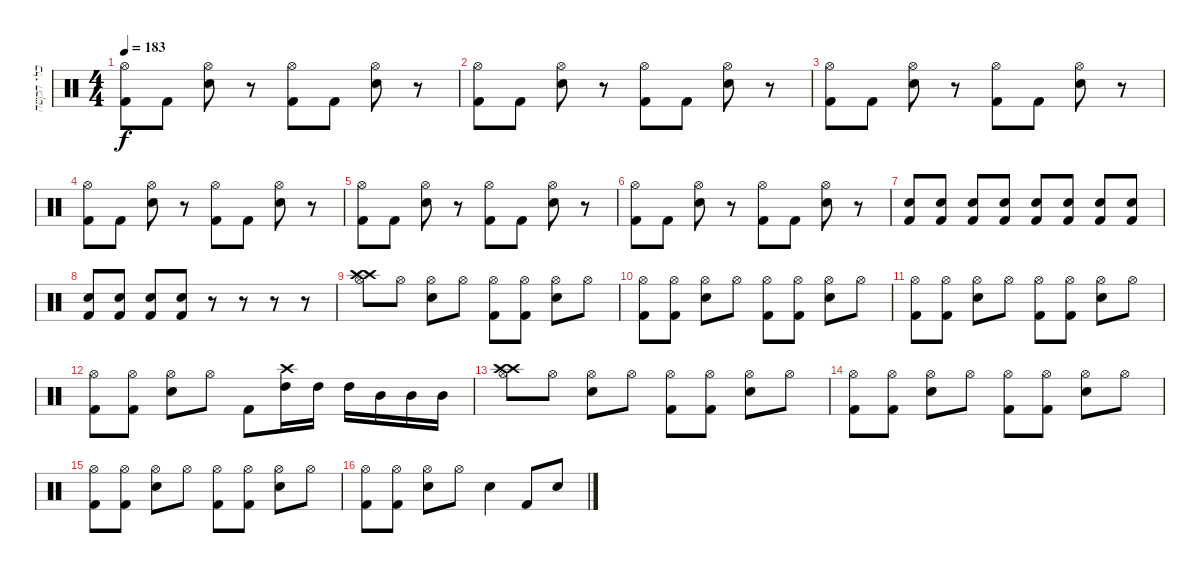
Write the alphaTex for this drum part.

\track ("כלי הקשה" "כלי הקשה") {instrument percussion}
\staff {score}
\articulation defaults
\ts (4 4)
\tempo 183
\clef neutral
\ks c
("Hi-Hat (open)" "Kick (hit) 2").8{dy f} "Kick (hit) 2".8 ("Hi-Hat (open)" "Snare (hit) 2").8 r.8 ("Hi-Hat (open)" "Kick (hit) 2").8 "Kick (hit) 2".8 ("Hi-Hat (open)" "Snare (hit) 2").8 r.8 |
("Hi-Hat (open)" "Kick (hit) 2").8 "Kick (hit) 2".8 ("Hi-Hat (open)" "Snare (hit) 2").8 r.8 ("Hi-Hat (open)" "Kick (hit) 2").8 "Kick (hit) 2".8 ("Hi-Hat (open)" "Snare (hit) 2").8 r.8 |
("Hi-Hat (open)" "Kick (hit) 2").8 "Kick (hit) 2".8 ("Hi-Hat (open)" "Snare (hit) 2").8 r.8 ("Hi-Hat (open)" "Kick (hit) 2").8 "Kick (hit) 2".8 ("Hi-Hat (open)" "Snare (hit) 2").8 r.8 |
("Hi-Hat (open)" "Kick (hit) 2").8 "Kick (hit) 2".8 ("Hi-Hat (open)" "Snare (hit) 2").8 r.8 ("Hi-Hat (open)" "Kick (hit) 2").8 "Kick (hit) 2".8 ("Hi-Hat (open)" "Snare (hit) 2").8 r.8 |
("Hi-Hat (open)" "Kick (hit) 2").8 "Kick (hit) 2".8 ("Hi-Hat (open)" "Snare (hit) 2").8 r.8 ("Hi-Hat (open)" "Kick (hit) 2").8 "Kick (hit) 2".8 ("Hi-Hat (open)" "Snare (hit) 2").8 r.8 |
("Hi-Hat (open)" "Kick (hit) 2").8 "Kick (hit) 2".8 ("Hi-Hat (open)" "Snare (hit) 2").8 r.8 ("Hi-Hat (open)" "Kick (hit) 2").8 "Kick (hit) 2".8 ("Hi-Hat (open)" "Snare (hit) 2").8 r.8 |
("Snare (hit) 2" "Kick (hit) 2").8 ("Snare (hit) 2" "Kick (hit) 2").8 ("Snare (hit) 2" "Kick (hit) 2").8 ("Snare (hit) 2" "Kick (hit) 2").8 ("Snare (hit) 2" "Kick (hit) 2").8 ("Snare (hit) 2" "Kick (hit) 2").8 ("Snare (hit) 2" "Kick (hit) 2").8 ("Snare (hit) 2" "Kick (hit) 2").8 |
("Snare (hit) 2" "Kick (hit) 2").8 ("Snare (hit) 2" "Kick (hit) 2").8 ("Snare (hit) 2" "Kick (hit) 2").8 ("Snare (hit) 2" "Kick (hit) 2").8 r.8 r.8 r.8 r.8 |
("Crash high (hit)" "Crash high (hit)" "Hi-Hat (open)").8 "Hi-Hat (open)".8 ("Hi-Hat (open)" "Snare (hit) 2").8 "Hi-Hat (open)".8 ("Hi-Hat (open)" "Kick (hit) 2").8 ("Hi-Hat (open)" "Kick (hit) 2").8 ("Hi-Hat (open)" "Snare (hit) 2").8 "Hi-Hat (open)".8 |
("Hi-Hat (open)" "Kick (hit) 2").8 ("Hi-Hat (open)" "Kick (hit) 2").8 ("Hi-Hat (open)" "Snare (hit) 2").8 "Hi-Hat (open)".8 ("Hi-Hat (open)" "Kick (hit) 2").8 ("Hi-Hat (open)" "Kick (hit) 2").8 ("Hi-Hat (open)" "Snare (hit) 2").8 "Hi-Hat (open)".8 |
("Hi-Hat (open)" "Kick (hit) 2").8 ("Hi-Hat (open)" "Kick (hit) 2").8 ("Hi-Hat (open)" "Snare (hit) 2").8 "Hi-Hat (open)".8 ("Hi-Hat (open)" "Kick (hit) 2").8 ("Hi-Hat (open)" "Kick (hit) 2").8 ("Hi-Hat (open)" "Snare (hit) 2").8 "Hi-Hat (open)".8 |
("Hi-Hat (open)" "Kick (hit) 2").8 ("Hi-Hat (open)" "Kick (hit) 2").8 ("Hi-Hat (open)" "Snare (hit) 2").8 "Hi-Hat (open)".8 "Kick (hit) 2".8 ("Crash high (hit)" "High Tom (hit)").16 "High Tom (hit)".16 "High Tom (hit)".16 "Mid Tom (hit)".16 "Mid Tom (hit)".16 "Mid Tom (hit)".16 |
("Crash high (hit)" "Crash high (hit)" "Hi-Hat (open)").8 "Hi-Hat (open)".8 ("Hi-Hat (open)" "Snare (hit) 2").8 "Hi-Hat (open)".8 ("Hi-Hat (open)" "Kick (hit) 2").8 ("Hi-Hat (open)" "Kick (hit) 2").8 ("Hi-Hat (open)" "Snare (hit) 2").8 "Hi-Hat (open)".8 |
("Hi-Hat (open)" "Kick (hit) 2").8 ("Hi-Hat (open)" "Kick (hit) 2").8 ("Hi-Hat (open)" "Snare (hit) 2").8 "Hi-Hat (open)".8 ("Hi-Hat (open)" "Kick (hit) 2").8 ("Hi-Hat (open)" "Kick (hit) 2").8 ("Hi-Hat (open)" "Snare (hit) 2").8 "Hi-Hat (open)".8 |
("Hi-Hat (open)" "Kick (hit) 2").8 ("Hi-Hat (open)" "Kick (hit) 2").8 ("Hi-Hat (open)" "Snare (hit) 2").8 "Hi-Hat (open)".8 ("Hi-Hat (open)" "Kick (hit) 2").8 ("Hi-Hat (open)" "Kick (hit) 2").8 ("Hi-Hat (open)" "Snare (hit) 2").8 "Hi-Hat (open)".8 |
("Hi-Hat (open)" "Kick (hit) 2").8 ("Hi-Hat (open)" "Kick (hit) 2").8 ("Hi-Hat (open)" "Snare (hit) 2").8 "Hi-Hat (open)".8 "Snare (hit) 2".4 "Kick (hit) 2".8 "Snare (hit) 2".8
